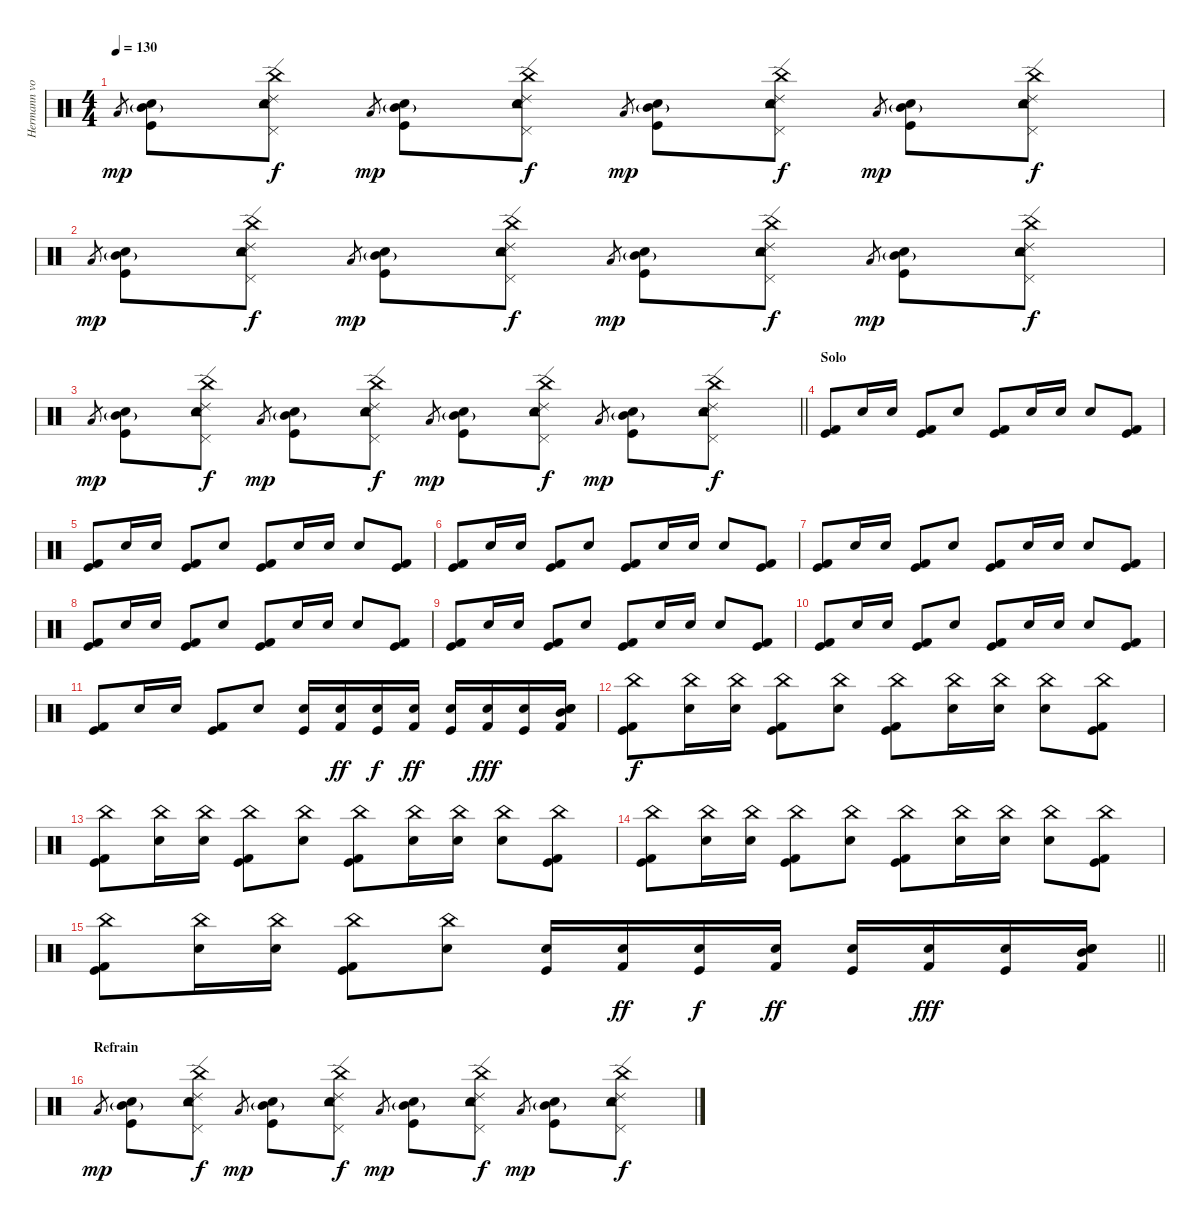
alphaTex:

\track ("Hermann von Hinten" "Hermann vo") {instrument percussion}
\staff {score}
\articulation defaults
\ts (4 4)
\tempo 130
\clef neutral
\ks c "Low Tom (hit)".8{gr dy mp}
("Mid Tom (hit)"{g} "Kick (hit)" "Snare (hit) 2").8 ("Tambourine (hit)" "Pedal Hi-Hat (hit)" "China (hit)" "Ride (edge) 2" "Electric Snare (hit)").8{dy f} "Low Tom (hit)".8{gr dy mp} ("Mid Tom (hit)"{g} "Kick (hit)" "Snare (hit) 2").8 ("Tambourine (hit)" "Pedal Hi-Hat (hit)" "China (hit)" "Ride (edge) 2" "Electric Snare (hit)").8{dy f} "Low Tom (hit)".8{gr dy mp} ("Mid Tom (hit)"{g} "Kick (hit)" "Snare (hit) 2").8 ("Tambourine (hit)" "Pedal Hi-Hat (hit)" "China (hit)" "Ride (edge) 2" "Electric Snare (hit)").8{dy f} "Low Tom (hit)".8{gr dy mp} ("Mid Tom (hit)"{g} "Kick (hit)" "Snare (hit) 2").8 ("Tambourine (hit)" "Pedal Hi-Hat (hit)" "China (hit)" "Ride (edge) 2" "Electric Snare (hit)").8{dy f} |
"Low Tom (hit)".8{gr dy mp} ("Mid Tom (hit)"{g} "Kick (hit)" "Snare (hit) 2").8 ("Tambourine (hit)" "Pedal Hi-Hat (hit)" "China (hit)" "Ride (edge) 2" "Electric Snare (hit)").8{dy f} "Low Tom (hit)".8{gr dy mp} ("Mid Tom (hit)"{g} "Kick (hit)" "Snare (hit) 2").8 ("Tambourine (hit)" "Pedal Hi-Hat (hit)" "China (hit)" "Ride (edge) 2" "Electric Snare (hit)").8{dy f} "Low Tom (hit)".8{gr dy mp} ("Mid Tom (hit)"{g} "Kick (hit)" "Snare (hit) 2").8 ("Tambourine (hit)" "Pedal Hi-Hat (hit)" "China (hit)" "Ride (edge) 2" "Electric Snare (hit)").8{dy f} "Low Tom (hit)".8{gr dy mp} ("Mid Tom (hit)"{g} "Kick (hit)" "Snare (hit) 2").8 ("Tambourine (hit)" "Pedal Hi-Hat (hit)" "China (hit)" "Ride (edge) 2" "Electric Snare (hit)").8{dy f} |
\barLineRight lightlight "Low Tom (hit)".8{gr dy mp}
("Mid Tom (hit)"{g} "Kick (hit)" "Snare (hit) 2").8 ("Tambourine (hit)" "Pedal Hi-Hat (hit)" "China (hit)" "Ride (edge) 2" "Electric Snare (hit)").8{dy f} "Low Tom (hit)".8{gr dy mp} ("Mid Tom (hit)"{g} "Kick (hit)" "Snare (hit) 2").8 ("Tambourine (hit)" "Pedal Hi-Hat (hit)" "China (hit)" "Ride (edge) 2" "Electric Snare (hit)").8{dy f} "Low Tom (hit)".8{gr dy mp} ("Mid Tom (hit)"{g} "Kick (hit)" "Snare (hit) 2").8 ("Tambourine (hit)" "Pedal Hi-Hat (hit)" "China (hit)" "Ride (edge) 2" "Electric Snare (hit)").8{dy f} "Low Tom (hit)".8{gr dy mp} ("Mid Tom (hit)"{g} "Kick (hit)" "Snare (hit) 2").8 ("Tambourine (hit)" "Pedal Hi-Hat (hit)" "China (hit)" "Ride (edge) 2" "Electric Snare (hit)").8{dy f} |
\section ("" "Solo")
("Kick (hit) 2" "Kick (hit)").8 "Electric Snare (hit)".16 "Electric Snare (hit)".16 ("Kick (hit) 2" "Kick (hit)").8 "Snare (hit) 2".8 ("Kick (hit) 2" "Kick (hit)").8 "Electric Snare (hit)".16 "Electric Snare (hit)".16 "Snare (hit) 2".8 ("Kick (hit) 2" "Kick (hit)").8 |
("Kick (hit) 2" "Kick (hit)").8 "Electric Snare (hit)".16 "Electric Snare (hit)".16 ("Kick (hit) 2" "Kick (hit)").8 "Snare (hit) 2".8 ("Kick (hit) 2" "Kick (hit)").8 "Electric Snare (hit)".16 "Electric Snare (hit)".16 "Snare (hit) 2".8 ("Kick (hit) 2" "Kick (hit)").8 |
("Kick (hit) 2" "Kick (hit)").8 "Electric Snare (hit)".16 "Electric Snare (hit)".16 ("Kick (hit) 2" "Kick (hit)").8 "Snare (hit) 2".8 ("Kick (hit) 2" "Kick (hit)").8 "Electric Snare (hit)".16 "Electric Snare (hit)".16 "Snare (hit) 2".8 ("Kick (hit) 2" "Kick (hit)").8 |
("Kick (hit) 2" "Kick (hit)").8 "Electric Snare (hit)".16 "Electric Snare (hit)".16 ("Kick (hit) 2" "Kick (hit)").8 "Snare (hit) 2".8 ("Kick (hit) 2" "Kick (hit)").8 "Electric Snare (hit)".16 "Electric Snare (hit)".16 "Snare (hit) 2".8 ("Kick (hit) 2" "Kick (hit)").8 |
("Kick (hit) 2" "Kick (hit)").8 "Electric Snare (hit)".16 "Electric Snare (hit)".16 ("Kick (hit) 2" "Kick (hit)").8 "Snare (hit) 2".8 ("Kick (hit) 2" "Kick (hit)").8 "Electric Snare (hit)".16 "Electric Snare (hit)".16 "Snare (hit) 2".8 ("Kick (hit) 2" "Kick (hit)").8 |
("Kick (hit) 2" "Kick (hit)").8 "Electric Snare (hit)".16 "Electric Snare (hit)".16 ("Kick (hit) 2" "Kick (hit)").8 "Snare (hit) 2".8 ("Kick (hit) 2" "Kick (hit)").8 "Electric Snare (hit)".16 "Electric Snare (hit)".16 "Snare (hit) 2".8 ("Kick (hit) 2" "Kick (hit)").8 |
("Kick (hit) 2" "Kick (hit)").8 "Electric Snare (hit)".16 "Electric Snare (hit)".16 ("Kick (hit) 2" "Kick (hit)").8 "Snare (hit) 2".8 ("Kick (hit) 2" "Kick (hit)").8 "Electric Snare (hit)".16 "Electric Snare (hit)".16 "Snare (hit) 2".8 ("Kick (hit) 2" "Kick (hit)").8 |
("Kick (hit) 2" "Kick (hit)").8 "Electric Snare (hit)".16 "Electric Snare (hit)".16 ("Kick (hit) 2" "Kick (hit)").8 "Snare (hit) 2".8 ("Kick (hit)" "Snare (hit) 2").16 ("Kick (hit) 2" "Electric Snare (hit)").16{dy ff} ("Kick (hit)" "Snare (hit) 2").16{dy f} ("Kick (hit) 2" "Electric Snare (hit)").16{dy ff} ("Kick (hit)" "Snare (hit) 2").16 ("Kick (hit) 2" "Electric Snare (hit)").16{dy fff} ("Kick (hit)" "Snare (hit) 2").16 ("Mid Tom (hit)" "Kick (hit) 2" "Electric Snare (hit)" "Snare (hit) 2").16 |
("China (hit)" "Kick (hit) 2" "Kick (hit)").8{dy f} ("China (hit)" "Electric Snare (hit)").16 ("China (hit)" "Electric Snare (hit)").16 ("China (hit)" "Kick (hit) 2" "Kick (hit)").8 ("China (hit)" "Snare (hit) 2").8 ("China (hit)" "Kick (hit) 2" "Kick (hit)").8 ("China (hit)" "Electric Snare (hit)").16 ("China (hit)" "Electric Snare (hit)").16 ("China (hit)" "Snare (hit) 2").8 ("China (hit)" "Kick (hit) 2" "Kick (hit)").8 |
("China (hit)" "Kick (hit) 2" "Kick (hit)").8 ("China (hit)" "Electric Snare (hit)").16 ("China (hit)" "Electric Snare (hit)").16 ("China (hit)" "Kick (hit) 2" "Kick (hit)").8 ("China (hit)" "Snare (hit) 2").8 ("China (hit)" "Kick (hit) 2" "Kick (hit)").8 ("China (hit)" "Electric Snare (hit)").16 ("China (hit)" "Electric Snare (hit)").16 ("China (hit)" "Snare (hit) 2").8 ("China (hit)" "Kick (hit) 2" "Kick (hit)").8 |
("China (hit)" "Kick (hit) 2" "Kick (hit)").8 ("China (hit)" "Electric Snare (hit)").16 ("China (hit)" "Electric Snare (hit)").16 ("China (hit)" "Kick (hit) 2" "Kick (hit)").8 ("China (hit)" "Snare (hit) 2").8 ("China (hit)" "Kick (hit) 2" "Kick (hit)").8 ("China (hit)" "Electric Snare (hit)").16 ("China (hit)" "Electric Snare (hit)").16 ("China (hit)" "Snare (hit) 2").8 ("China (hit)" "Kick (hit) 2" "Kick (hit)").8 |
\barLineRight lightlight
("China (hit)" "Kick (hit) 2" "Kick (hit)").8 ("China (hit)" "Electric Snare (hit)").16 ("China (hit)" "Electric Snare (hit)").16 ("China (hit)" "Kick (hit) 2" "Kick (hit)").8 ("China (hit)" "Snare (hit) 2").8 ("Kick (hit)" "Snare (hit) 2").16 ("Kick (hit) 2" "Electric Snare (hit)").16{dy ff} ("Kick (hit)" "Snare (hit) 2").16{dy f} ("Kick (hit) 2" "Electric Snare (hit)").16{dy ff} ("Kick (hit)" "Snare (hit) 2").16 ("Kick (hit) 2" "Electric Snare (hit)").16{dy fff} ("Kick (hit)" "Snare (hit) 2").16 ("Mid Tom (hit)" "Kick (hit) 2" "Electric Snare (hit)" "Snare (hit) 2").16 |
\section ("" "Refrain")
"Low Tom (hit)".8{gr dy mp} ("Mid Tom (hit)"{g} "Kick (hit)" "Snare (hit) 2").8 ("Tambourine (hit)" "Pedal Hi-Hat (hit)" "China (hit)" "Ride (edge) 2" "Electric Snare (hit)").8{dy f} "Low Tom (hit)".8{gr dy mp} ("Mid Tom (hit)"{g} "Kick (hit)" "Snare (hit) 2").8 ("Tambourine (hit)" "Pedal Hi-Hat (hit)" "China (hit)" "Ride (edge) 2" "Electric Snare (hit)").8{dy f} "Low Tom (hit)".8{gr dy mp} ("Mid Tom (hit)"{g} "Kick (hit)" "Snare (hit) 2").8 ("Tambourine (hit)" "Pedal Hi-Hat (hit)" "China (hit)" "Ride (edge) 2" "Electric Snare (hit)").8{dy f} "Low Tom (hit)".8{gr dy mp} ("Mid Tom (hit)"{g} "Kick (hit)" "Snare (hit) 2").8 ("Tambourine (hit)" "Pedal Hi-Hat (hit)" "China (hit)" "Ride (edge) 2" "Electric Snare (hit)").8{dy f}
